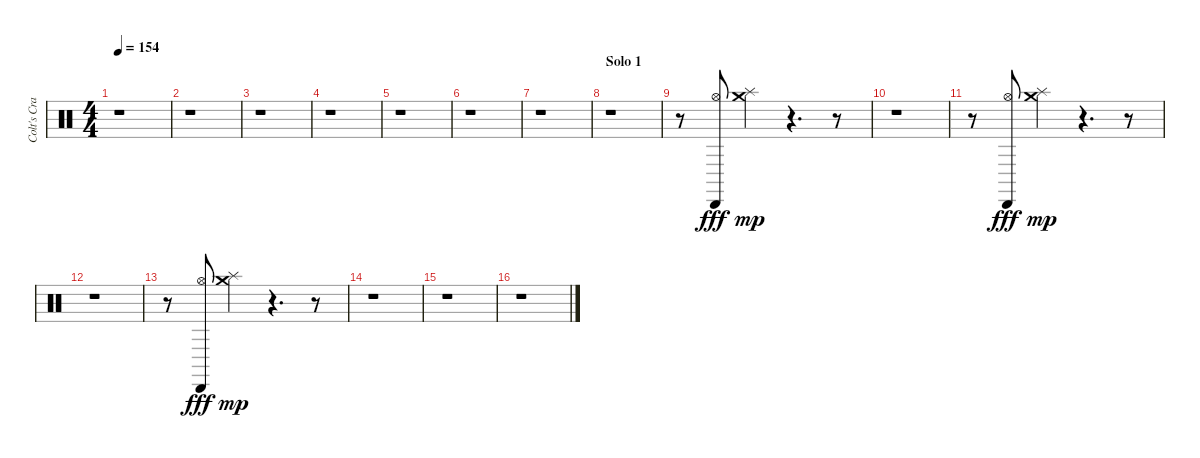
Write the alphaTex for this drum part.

\track ("Colt's Cracking Whip!" "Colt's Cra") {instrument percussion}
\staff {score}
\articulation defaults
\ts (4 4)
\tempo 154
\clef neutral
\ks c
r.1{dy mp} |
r.1 |
r.1 |
r.1 |
r.1 |
r.1 |
r.1 |
\section ("" "Solo 1")
r.1 |
r.8 ("Hi-Hat (open)" "Cabasa (hit)").8{dy fff} ("Crash medium (hit)" "Splash (hit)").4{dy mp} r.4{d} r.8 |
r.1 |
r.8 ("Hi-Hat (open)" "Cabasa (hit)").8{dy fff} ("Crash medium (hit)" "Splash (hit)").4{dy mp} r.4{d} r.8 |
r.1 |
r.8 ("Hi-Hat (open)" "Cabasa (hit)").8{dy fff} ("Crash medium (hit)" "Splash (hit)").4{dy mp} r.4{d} r.8 |
r.1 |
r.1 |
r.1
